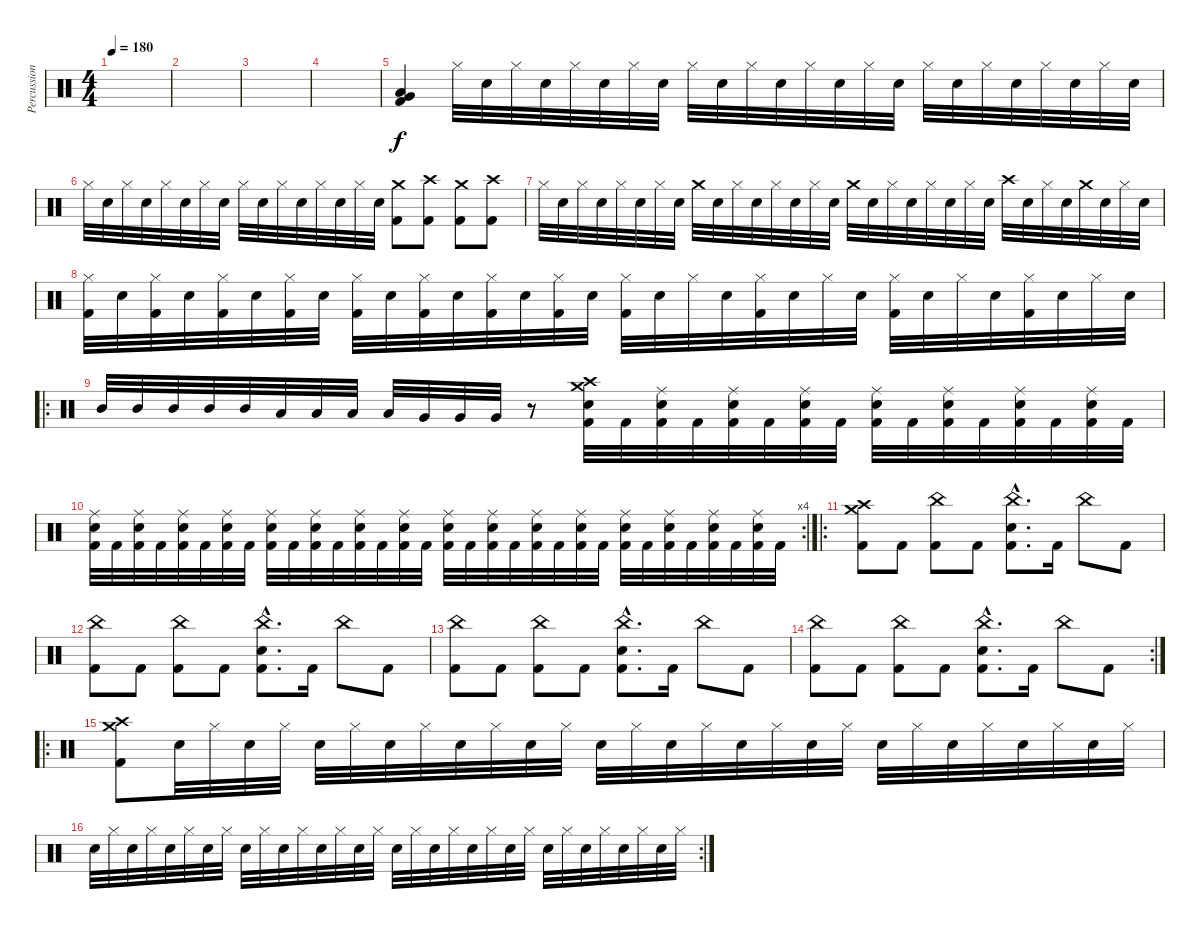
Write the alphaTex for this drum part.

\track ("Percussion" "Percussion") {instrument percussion}
\staff {score}
\articulation defaults
\ts (4 4)
\tempo 180
\clef neutral
\ks c
|
|
|
|
("Low Tom (hit)" "Very Low Tom (hit)" "Kick (hit) 2").4 "Hi-Hat (closed)".32 "Snare (hit) 2".32 "Hi-Hat (closed)".32 "Snare (hit) 2".32 "Hi-Hat (closed)".32 "Snare (hit) 2".32 "Hi-Hat (closed)".32 "Snare (hit) 2".32 "Hi-Hat (closed)".32 "Snare (hit) 2".32 "Hi-Hat (closed)".32 "Snare (hit) 2".32 "Hi-Hat (closed)".32 "Snare (hit) 2".32 "Hi-Hat (closed)".32 "Snare (hit) 2".32 "Hi-Hat (closed)".32 "Snare (hit) 2".32 "Hi-Hat (closed)".32 "Snare (hit) 2".32 "Hi-Hat (closed)".32 "Snare (hit) 2".32 "Hi-Hat (closed)".32 "Snare (hit) 2".32 |
"Hi-Hat (closed)".32 "Snare (hit) 2".32 "Hi-Hat (closed)".32 "Snare (hit) 2".32 "Hi-Hat (closed)".32 "Snare (hit) 2".32 "Hi-Hat (closed)".32 "Snare (hit) 2".32 "Hi-Hat (closed)".32 "Snare (hit) 2".32 "Hi-Hat (closed)".32 "Snare (hit) 2".32 "Hi-Hat (closed)".32 "Snare (hit) 2".32 "Hi-Hat (closed)".32 "Snare (hit) 2".32 ("Crash medium (hit)" "Kick (hit) 2").8 ("Crash high (hit)" "Kick (hit) 2").8 ("Crash medium (hit)" "Kick (hit) 2").8 ("Crash high (hit)" "Kick (hit) 2").8 |
"Hi-Hat (closed)".32 "Snare (hit) 2".32 "Hi-Hat (closed)".32 "Snare (hit) 2".32 "Hi-Hat (closed)".32 "Snare (hit) 2".32 "Hi-Hat (closed)".32 "Snare (hit) 2".32 "Crash medium (hit)".32 "Snare (hit) 2".32 "Hi-Hat (closed)".32 "Snare (hit) 2".32 "Hi-Hat (closed)".32 "Snare (hit) 2".32 "Hi-Hat (closed)".32 "Snare (hit) 2".32 "Crash medium (hit)".32 "Snare (hit) 2".32 "Hi-Hat (closed)".32 "Snare (hit) 2".32 "Hi-Hat (closed)".32 "Snare (hit) 2".32 "Hi-Hat (closed)".32 "Snare (hit) 2".32 "Crash high (hit)".32 "Snare (hit) 2".32 "Hi-Hat (closed)".32 "Snare (hit) 2".32 "Crash medium (hit)".32 "Snare (hit) 2".32 "Hi-Hat (closed)".32 "Snare (hit) 2".32 |
("Hi-Hat (closed)" "Kick (hit) 2").32 "Snare (hit) 2".32 ("Hi-Hat (closed)" "Kick (hit) 2").32 "Snare (hit) 2".32 ("Hi-Hat (closed)" "Kick (hit) 2").32 "Snare (hit) 2".32 ("Hi-Hat (closed)" "Kick (hit) 2").32 "Snare (hit) 2".32 ("Hi-Hat (closed)" "Kick (hit) 2").32 "Snare (hit) 2".32 ("Hi-Hat (closed)" "Kick (hit) 2").32 "Snare (hit) 2".32 ("Hi-Hat (closed)" "Kick (hit) 2").32 "Snare (hit) 2".32 ("Hi-Hat (closed)" "Kick (hit) 2").32 "Snare (hit) 2".32 ("Hi-Hat (closed)" "Kick (hit) 2").32 "Snare (hit) 2".32 "Hi-Hat (closed)".32 "Snare (hit) 2".32 ("Hi-Hat (closed)" "Kick (hit) 2").32 "Snare (hit) 2".32 "Hi-Hat (closed)".32 "Snare (hit) 2".32 ("Hi-Hat (closed)" "Kick (hit) 2").32 "Snare (hit) 2".32 "Hi-Hat (closed)".32 "Snare (hit) 2".32 ("Hi-Hat (closed)" "Kick (hit) 2").32 "Snare (hit) 2".32 "Hi-Hat (closed)".32 "Snare (hit) 2".32 |
\ro "Mid Tom (hit)".32 "Mid Tom (hit)".32 "Mid Tom (hit)".32 "Mid Tom (hit)".32 "Mid Tom (hit)".32 "Low Tom (hit)".32 "Low Tom (hit)".32 "Low Tom (hit)".32 "Low Tom (hit)".32 "Very Low Tom (hit)".32 "Very Low Tom (hit)".32 "Very Low Tom (hit)".32
r.8 ("Crash medium (hit)" "Crash high (hit)" "Snare (hit) 2" "Kick (hit) 2").32 "Kick (hit) 2".32 ("Ride (middle)" "Snare (hit) 2" "Kick (hit) 2").32 "Kick (hit) 2".32 ("Ride (middle)" "Snare (hit) 2" "Kick (hit) 2").32 "Kick (hit) 2".32 ("Ride (middle)" "Snare (hit) 2" "Kick (hit) 2").32 "Kick (hit) 2".32 ("Ride (middle)" "Snare (hit) 2" "Kick (hit) 2").32 "Kick (hit) 2".32 ("Ride (middle)" "Snare (hit) 2" "Kick (hit) 2").32 "Kick (hit) 2".32 ("Ride (middle)" "Snare (hit) 2" "Kick (hit) 2").32 "Kick (hit) 2".32 ("Ride (middle)" "Snare (hit) 2" "Kick (hit) 2").32 "Kick (hit) 2".32 |
\rc 4
("Ride (middle)" "Snare (hit) 2" "Kick (hit) 2").32 "Kick (hit) 2".32 ("Ride (middle)" "Snare (hit) 2" "Kick (hit) 2").32 "Kick (hit) 2".32 ("Ride (middle)" "Snare (hit) 2" "Kick (hit) 2").32 "Kick (hit) 2".32 ("Ride (middle)" "Snare (hit) 2" "Kick (hit) 2").32 "Kick (hit) 2".32 ("Ride (middle)" "Snare (hit) 2" "Kick (hit) 2").32 "Kick (hit) 2".32 ("Ride (middle)" "Snare (hit) 2" "Kick (hit) 2").32 "Kick (hit) 2".32 ("Ride (middle)" "Snare (hit) 2" "Kick (hit) 2").32 "Kick (hit) 2".32 ("Ride (middle)" "Snare (hit) 2" "Kick (hit) 2").32 "Kick (hit) 2".32 ("Ride (middle)" "Snare (hit) 2" "Kick (hit) 2").32 "Kick (hit) 2".32 ("Ride (middle)" "Snare (hit) 2" "Kick (hit) 2").32 "Kick (hit) 2".32 ("Ride (middle)" "Snare (hit) 2" "Kick (hit) 2").32 "Kick (hit) 2".32 ("Ride (middle)" "Snare (hit) 2" "Kick (hit) 2").32 "Kick (hit) 2".32 ("Ride (middle)" "Snare (hit) 2" "Kick (hit) 2").32 "Kick (hit) 2".32 ("Ride (middle)" "Snare (hit) 2" "Kick (hit) 2").32 "Kick (hit) 2".32 ("Ride (middle)" "Snare (hit) 2" "Kick (hit) 2").32 "Kick (hit) 2".32 ("Ride (middle)" "Snare (hit) 2" "Kick (hit) 2").32 "Kick (hit) 2".32 |
\ro
("Crash high (hit)" "Crash medium (hit)" "Kick (hit) 2").8 "Kick (hit) 2".8 ("China (hit)" "Kick (hit) 2").8 "Kick (hit) 2".8 ("China (hit)"{hac} "Snare (hit) 2"{hac} "Kick (hit) 2"{hac}).8{d} "Kick (hit) 2".16 "China (hit)".8 "Kick (hit) 2".8 |
("China (hit)" "Kick (hit) 2").8 "Kick (hit) 2".8 ("China (hit)" "Kick (hit) 2").8 "Kick (hit) 2".8 ("China (hit)"{hac} "Snare (hit) 2"{hac} "Kick (hit) 2"{hac}).8{d} "Kick (hit) 2".16 "China (hit)".8 "Kick (hit) 2".8 |
("China (hit)" "Kick (hit) 2").8 "Kick (hit) 2".8 ("China (hit)" "Kick (hit) 2").8 "Kick (hit) 2".8 ("China (hit)"{hac} "Snare (hit) 2"{hac} "Kick (hit) 2"{hac}).8{d} "Kick (hit) 2".16 "China (hit)".8 "Kick (hit) 2".8 |
\rc 2
("China (hit)" "Kick (hit) 2").8 "Kick (hit) 2".8 ("China (hit)" "Kick (hit) 2").8 "Kick (hit) 2".8 ("China (hit)"{hac} "Snare (hit) 2"{hac} "Kick (hit) 2"{hac}).8{d} "Kick (hit) 2".16 "China (hit)".8 "Kick (hit) 2".8 |
\ro
("Crash medium (hit)" "Crash high (hit)" "Kick (hit) 2").8 "Snare (hit) 2".32 "Hi-Hat (closed)".32 "Snare (hit) 2".32 "Hi-Hat (closed)".32 "Snare (hit) 2".32 "Hi-Hat (closed)".32 "Snare (hit) 2".32 "Hi-Hat (closed)".32 "Snare (hit) 2".32 "Hi-Hat (closed)".32 "Snare (hit) 2".32 "Hi-Hat (closed)".32 "Snare (hit) 2".32 "Hi-Hat (closed)".32 "Snare (hit) 2".32 "Hi-Hat (closed)".32 "Snare (hit) 2".32 "Hi-Hat (closed)".32 "Snare (hit) 2".32 "Hi-Hat (closed)".32 "Snare (hit) 2".32 "Hi-Hat (closed)".32 "Snare (hit) 2".32 "Hi-Hat (closed)".32 "Snare (hit) 2".32 "Hi-Hat (closed)".32 "Snare (hit) 2".32 "Hi-Hat (closed)".32 |
\rc 2 "Snare (hit) 2".32 "Hi-Hat (closed)".32 "Snare (hit) 2".32 "Hi-Hat (closed)".32 "Snare (hit) 2".32 "Hi-Hat (closed)".32 "Snare (hit) 2".32 "Hi-Hat (closed)".32 "Snare (hit) 2".32 "Hi-Hat (closed)".32 "Snare (hit) 2".32 "Hi-Hat (closed)".32 "Snare (hit) 2".32 "Hi-Hat (closed)".32 "Snare (hit) 2".32 "Hi-Hat (closed)".32 "Snare (hit) 2".32 "Hi-Hat (closed)".32 "Snare (hit) 2".32 "Hi-Hat (closed)".32 "Snare (hit) 2".32 "Hi-Hat (closed)".32 "Snare (hit) 2".32 "Hi-Hat (closed)".32 "Snare (hit) 2".32 "Hi-Hat (closed)".32 "Snare (hit) 2".32 "Hi-Hat (closed)".32 "Snare (hit) 2".32 "Hi-Hat (closed)".32 "Snare (hit) 2".32 "Hi-Hat (closed)".32
